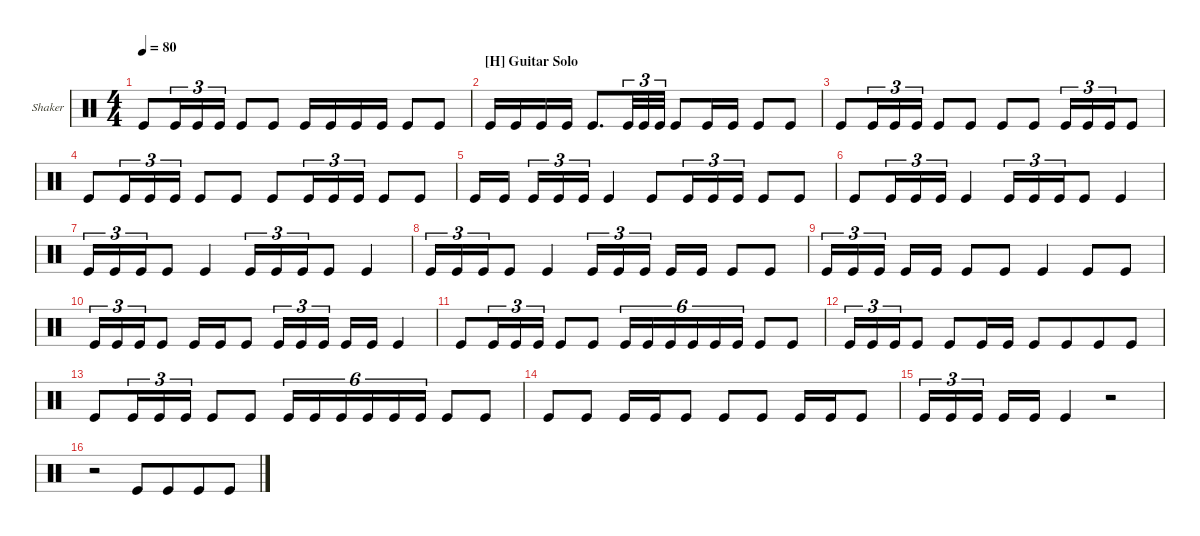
\defaultSystemsLayout 4
\hideDynamics
\bracketExtendMode groupsimilarinstruments
\firstSystemTrackNameOrientation horizontal
\otherSystemsTrackNameOrientation horizontal
\track ("Shaker" "Shaker") {multiBarRest instrument percussion}
\staff {score}
\articulation defaults
\ts (4 4)
\tempo 80
\clef neutral
\ks c "Kick (hit)".8{dy p beam merge} "Kick (hit)".16{tu (3 2)} "Kick (hit)".16{tu (3 2)} "Kick (hit)".16{tu (3 2)} "Kick (hit)".8 "Kick (hit)".8 "Kick (hit)".16 "Kick (hit)".16 "Kick (hit)".16 "Kick (hit)".16 "Kick (hit)".8 "Kick (hit)".8
|
\section ("H" "Guitar Solo")
"Kick (hit)".16 "Kick (hit)".16 "Kick (hit)".16 "Kick (hit)".16 "Kick (hit)".8{d beam merge} "Kick (hit)".32{tu (3 2)} "Kick (hit)".32{tu (3 2)} "Kick (hit)".32{tu (3 2)} "Kick (hit)".8 "Kick (hit)".16 "Kick (hit)".16 "Kick (hit)".8 "Kick (hit)".8 |
"Kick (hit)".8{beam merge} "Kick (hit)".16{tu (3 2)} "Kick (hit)".16{tu (3 2)} "Kick (hit)".16{tu (3 2)} "Kick (hit)".8 "Kick (hit)".8 "Kick (hit)".8 "Kick (hit)".8 "Kick (hit)".16{tu (3 2)} "Kick (hit)".16{tu (3 2)} "Kick (hit)".16{tu (3 2) beam merge} "Kick (hit)".8 |
"Kick (hit)".8{beam merge} "Kick (hit)".16{tu (3 2)} "Kick (hit)".16{tu (3 2)} "Kick (hit)".16{tu (3 2)} "Kick (hit)".8 "Kick (hit)".8 "Kick (hit)".8{beam merge} "Kick (hit)".16{tu (3 2)} "Kick (hit)".16{tu (3 2)} "Kick (hit)".16{tu (3 2)} "Kick (hit)".8 "Kick (hit)".8 |
"Kick (hit)".16 "Kick (hit)".16{beam splitsecondary} "Kick (hit)".16{tu (3 2)} "Kick (hit)".16{tu (3 2)} "Kick (hit)".16{tu (3 2)} "Kick (hit)".4 "Kick (hit)".8{beam merge} "Kick (hit)".16{tu (3 2)} "Kick (hit)".16{tu (3 2)} "Kick (hit)".16{tu (3 2)} "Kick (hit)".8 "Kick (hit)".8 |
"Kick (hit)".8{beam merge} "Kick (hit)".16{tu (3 2)} "Kick (hit)".16{tu (3 2)} "Kick (hit)".16{tu (3 2)} "Kick (hit)".4 "Kick (hit)".16{tu (3 2)} "Kick (hit)".16{tu (3 2)} "Kick (hit)".16{tu (3 2) beam merge} "Kick (hit)".8 "Kick (hit)".4 |
"Kick (hit)".16{tu (3 2)} "Kick (hit)".16{tu (3 2)} "Kick (hit)".16{tu (3 2) beam merge} "Kick (hit)".8 "Kick (hit)".4 "Kick (hit)".16{tu (3 2)} "Kick (hit)".16{tu (3 2)} "Kick (hit)".16{tu (3 2) beam merge} "Kick (hit)".8 "Kick (hit)".4 |
"Kick (hit)".16{tu (3 2)} "Kick (hit)".16{tu (3 2)} "Kick (hit)".16{tu (3 2) beam merge} "Kick (hit)".8 "Kick (hit)".4 "Kick (hit)".16{tu (3 2)} "Kick (hit)".16{tu (3 2)} "Kick (hit)".16{tu (3 2) beam splitsecondary} "Kick (hit)".16 "Kick (hit)".16 "Kick (hit)".8 "Kick (hit)".8 |
"Kick (hit)".16{tu (3 2)} "Kick (hit)".16{tu (3 2)} "Kick (hit)".16{tu (3 2) beam splitsecondary} "Kick (hit)".16 "Kick (hit)".16 "Kick (hit)".8 "Kick (hit)".8 "Kick (hit)".4 "Kick (hit)".8 "Kick (hit)".8 |
"Kick (hit)".16{tu (3 2)} "Kick (hit)".16{tu (3 2)} "Kick (hit)".16{tu (3 2) beam merge} "Kick (hit)".8 "Kick (hit)".16 "Kick (hit)".16 "Kick (hit)".8 "Kick (hit)".16{tu (3 2)} "Kick (hit)".16{tu (3 2)} "Kick (hit)".16{tu (3 2) beam splitsecondary} "Kick (hit)".16 "Kick (hit)".16 "Kick (hit)".4 |
"Kick (hit)".8{beam merge} "Kick (hit)".16{tu (3 2)} "Kick (hit)".16{tu (3 2)} "Kick (hit)".16{tu (3 2)} "Kick (hit)".8 "Kick (hit)".8 "Kick (hit)".16{tu (6 4)} "Kick (hit)".16{tu (6 4)} "Kick (hit)".16{tu (6 4)} "Kick (hit)".16{tu (6 4)} "Kick (hit)".16{tu (6 4)} "Kick (hit)".16{tu (6 4)} "Kick (hit)".8 "Kick (hit)".8 |
"Kick (hit)".16{tu (3 2)} "Kick (hit)".16{tu (3 2)} "Kick (hit)".16{tu (3 2) beam merge} "Kick (hit)".8 "Kick (hit)".8 "Kick (hit)".16 "Kick (hit)".16 "Kick (hit)".8 "Kick (hit)".8{beam merge} "Kick (hit)".8 "Kick (hit)".8 |
"Kick (hit)".8{beam merge} "Kick (hit)".16{tu (3 2)} "Kick (hit)".16{tu (3 2)} "Kick (hit)".16{tu (3 2)} "Kick (hit)".8 "Kick (hit)".8 "Kick (hit)".16{tu (6 4)} "Kick (hit)".16{tu (6 4)} "Kick (hit)".16{tu (6 4)} "Kick (hit)".16{tu (6 4)} "Kick (hit)".16{tu (6 4)} "Kick (hit)".16{tu (6 4)} "Kick (hit)".8 "Kick (hit)".8 |
"Kick (hit)".8 "Kick (hit)".8 "Kick (hit)".16 "Kick (hit)".16 "Kick (hit)".8 "Kick (hit)".8 "Kick (hit)".8 "Kick (hit)".16 "Kick (hit)".16 "Kick (hit)".8 |
"Kick (hit)".16{tu (3 2)} "Kick (hit)".16{tu (3 2)} "Kick (hit)".16{tu (3 2) beam splitsecondary} "Kick (hit)".16 "Kick (hit)".16 "Kick (hit)".4 r.2 |
r.2 "Kick (hit)".8 "Kick (hit)".8{beam merge} "Kick (hit)".8 "Kick (hit)".8
